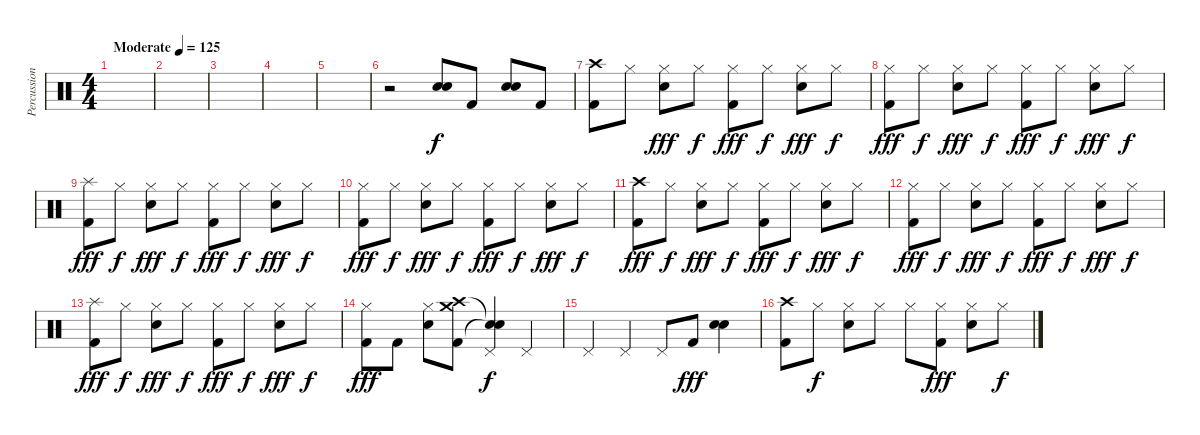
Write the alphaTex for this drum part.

\track ("Percussions" "Percussion") {instrument percussion}
\staff {score}
\articulation defaults
\ts (4 4)
\tempo (125 "Moderate")
\clef neutral
\ks c
|
|
|
|
|
r.2 ("Electric Snare (hit)" "Electric Snare (hit)").8{bd 120} "Kick (hit) 2".8 ("Electric Snare (hit)" "Electric Snare (hit)").8{bd 120} "Kick (hit) 2".8 |
("Crash high (hit)" "Kick (hit) 2").8 "Hi-Hat (closed)".8{dy f} ("Hi-Hat (closed)" "Electric Snare (hit)").8{dy fff} "Hi-Hat (closed)".8{dy f} ("Hi-Hat (closed)" "Kick (hit) 2").8{dy fff} "Hi-Hat (closed)".8{dy f} ("Hi-Hat (closed)" "Electric Snare (hit)").8{dy fff} "Hi-Hat (closed)".8{dy f} |
("Hi-Hat (closed)" "Kick (hit) 2").8{dy fff} "Hi-Hat (closed)".8{dy f} ("Hi-Hat (closed)" "Electric Snare (hit)").8{dy fff} "Hi-Hat (closed)".8{dy f} ("Hi-Hat (closed)" "Kick (hit) 2").8{dy fff} "Hi-Hat (closed)".8{dy f} ("Hi-Hat (closed)" "Electric Snare (hit)").8{dy fff} "Hi-Hat (closed)".8{dy f} |
("Splash (hit)" "Kick (hit) 2").8{dy fff} "Hi-Hat (closed)".8{dy f} ("Hi-Hat (closed)" "Electric Snare (hit)").8{dy fff} "Hi-Hat (closed)".8{dy f} ("Hi-Hat (closed)" "Kick (hit) 2").8{dy fff} "Hi-Hat (closed)".8{dy f} ("Hi-Hat (closed)" "Electric Snare (hit)").8{dy fff} "Hi-Hat (closed)".8{dy f} |
("Hi-Hat (closed)" "Kick (hit) 2").8{dy fff} "Hi-Hat (closed)".8{dy f} ("Hi-Hat (closed)" "Electric Snare (hit)").8{dy fff} "Hi-Hat (closed)".8{dy f} ("Hi-Hat (closed)" "Kick (hit) 2").8{dy fff} "Hi-Hat (closed)".8{dy f} ("Hi-Hat (closed)" "Electric Snare (hit)").8{dy fff} "Hi-Hat (closed)".8{dy f} |
("Crash high (hit)" "Kick (hit) 2").8{dy fff} "Hi-Hat (closed)".8{dy f} ("Hi-Hat (closed)" "Electric Snare (hit)").8{dy fff} "Hi-Hat (closed)".8{dy f} ("Hi-Hat (closed)" "Kick (hit) 2").8{dy fff} "Hi-Hat (closed)".8{dy f} ("Hi-Hat (closed)" "Electric Snare (hit)").8{dy fff} "Hi-Hat (closed)".8{dy f} |
("Hi-Hat (closed)" "Kick (hit) 2").8{dy fff} "Hi-Hat (closed)".8{dy f} ("Hi-Hat (closed)" "Electric Snare (hit)").8{dy fff} "Hi-Hat (closed)".8{dy f} ("Hi-Hat (closed)" "Kick (hit) 2").8{dy fff} "Hi-Hat (closed)".8{dy f} ("Hi-Hat (closed)" "Electric Snare (hit)").8{dy fff} "Hi-Hat (closed)".8{dy f} |
("Splash (hit)" "Kick (hit) 2").8{dy fff} "Hi-Hat (closed)".8{dy f} ("Hi-Hat (closed)" "Electric Snare (hit)").8{dy fff} "Hi-Hat (closed)".8{dy f} ("Hi-Hat (closed)" "Kick (hit) 2").8{dy fff} "Hi-Hat (closed)".8{dy f} ("Hi-Hat (closed)" "Electric Snare (hit)").8{dy fff} "Hi-Hat (closed)".8{dy f} |
("Hi-Hat (closed)" "Kick (hit) 2").8{dy fff} "Kick (hit) 2".8 ("Hi-Hat (closed)" "Electric Snare (hit)").8 ("Crash high (hit)" "Crash medium (hit)" "Kick (hit) 2").8 ("Snare (hit)"{t} "Pedal Hi-Hat (hit)" "Snare (hit)"{t}).4{dy f} "Pedal Hi-Hat (hit)".4 |
"Pedal Hi-Hat (hit)".4 "Pedal Hi-Hat (hit)".4 "Pedal Hi-Hat (hit)".8 "Kick (hit) 2".8{dy fff} ("Electric Snare (hit)" "Electric Snare (hit)").4{bd 120} |
("Crash high (hit)" "Kick (hit) 2").8 "Hi-Hat (closed)".8{dy f} ("Electric Snare (hit)" "Hi-Hat (closed)").8 "Hi-Hat (closed)".8 "Hi-Hat (closed)".8 ("Hi-Hat (closed)" "Kick (hit) 2").8{dy fff} ("Hi-Hat (closed)" "Electric Snare (hit)").8 "Hi-Hat (closed)".8{dy f}
